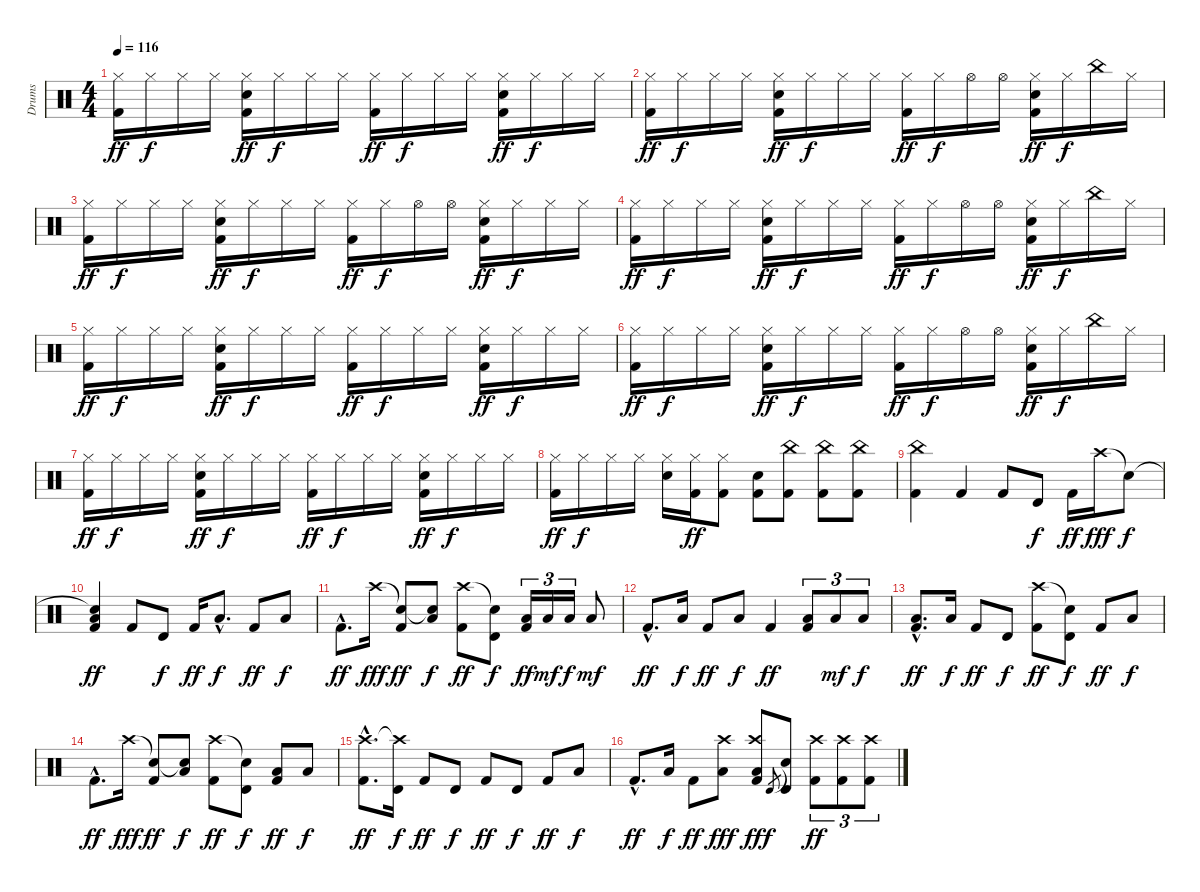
\track ("Drums" "Drums") {instrument percussion}
\staff {score}
\articulation defaults
\ts (4 4)
\tempo 116
\clef neutral
\ks c
("Hi-Hat (closed)" "Kick (hit) 2").16{dy ff} "Hi-Hat (closed)".16{dy f} "Hi-Hat (closed)".16 "Hi-Hat (closed)".16 ("Hi-Hat (closed)" "Snare (hit) 2" "Kick (hit) 2").16{dy ff} "Hi-Hat (closed)".16{dy f} "Hi-Hat (closed)".16 "Hi-Hat (closed)".16 ("Hi-Hat (closed)" "Kick (hit) 2").16{dy ff} "Hi-Hat (closed)".16{dy f} "Hi-Hat (closed)".16 "Hi-Hat (closed)".16 ("Hi-Hat (closed)" "Snare (hit) 2" "Kick (hit) 2").16{dy ff} "Hi-Hat (closed)".16{dy f} "Hi-Hat (closed)".16 "Hi-Hat (closed)".16 |
("Hi-Hat (closed)" "Kick (hit) 2").16{dy ff} "Hi-Hat (closed)".16{dy f} "Hi-Hat (closed)".16 "Hi-Hat (closed)".16 ("Hi-Hat (closed)" "Snare (hit) 2" "Kick (hit) 2").16{dy ff} "Hi-Hat (closed)".16{dy f} "Hi-Hat (closed)".16 "Hi-Hat (closed)".16 ("Hi-Hat (closed)" "Kick (hit) 2").16{dy ff} "Hi-Hat (closed)".16{dy f} "Hi-Hat (open)".16 "Hi-Hat (open)".16 ("Hi-Hat (closed)" "Snare (hit) 2" "Kick (hit) 2").16{dy ff} "Hi-Hat (closed)".16{dy f} "China (hit)".16 "Hi-Hat (closed)".16 |
("Hi-Hat (closed)" "Kick (hit) 2").16{dy ff} "Hi-Hat (closed)".16{dy f} "Hi-Hat (closed)".16 "Hi-Hat (closed)".16 ("Hi-Hat (closed)" "Snare (hit) 2" "Kick (hit) 2").16{dy ff} "Hi-Hat (closed)".16{dy f} "Hi-Hat (closed)".16 "Hi-Hat (closed)".16 ("Hi-Hat (closed)" "Kick (hit) 2").16{dy ff} "Hi-Hat (closed)".16{dy f} "Hi-Hat (open)".16 "Hi-Hat (open)".16 ("Hi-Hat (closed)" "Snare (hit) 2" "Kick (hit) 2").16{dy ff} "Hi-Hat (closed)".16{dy f} "Hi-Hat (closed)".16 "Hi-Hat (closed)".16 |
("Hi-Hat (closed)" "Kick (hit) 2").16{dy ff} "Hi-Hat (closed)".16{dy f} "Hi-Hat (closed)".16 "Hi-Hat (closed)".16 ("Hi-Hat (closed)" "Snare (hit) 2" "Kick (hit) 2").16{dy ff} "Hi-Hat (closed)".16{dy f} "Hi-Hat (closed)".16 "Hi-Hat (closed)".16 ("Hi-Hat (closed)" "Kick (hit) 2").16{dy ff} "Hi-Hat (closed)".16{dy f} "Hi-Hat (open)".16 "Hi-Hat (open)".16 ("Hi-Hat (closed)" "Snare (hit) 2" "Kick (hit) 2").16{dy ff} "Hi-Hat (closed)".16{dy f} "China (hit)".16 "Hi-Hat (closed)".16 |
("Hi-Hat (closed)" "Kick (hit) 2").16{dy ff} "Hi-Hat (closed)".16{dy f} "Hi-Hat (closed)".16 "Hi-Hat (closed)".16 ("Hi-Hat (closed)" "Snare (hit) 2" "Kick (hit) 2").16{dy ff} "Hi-Hat (closed)".16{dy f} "Hi-Hat (closed)".16 "Hi-Hat (closed)".16 ("Hi-Hat (closed)" "Kick (hit) 2").16{dy ff} "Hi-Hat (closed)".16{dy f} "Hi-Hat (closed)".16 "Hi-Hat (closed)".16 ("Hi-Hat (closed)" "Snare (hit) 2" "Kick (hit) 2").16{dy ff} "Hi-Hat (closed)".16{dy f} "Hi-Hat (closed)".16 "Hi-Hat (closed)".16 |
("Hi-Hat (closed)" "Kick (hit) 2").16{dy ff} "Hi-Hat (closed)".16{dy f} "Hi-Hat (closed)".16 "Hi-Hat (closed)".16 ("Hi-Hat (closed)" "Snare (hit) 2" "Kick (hit) 2").16{dy ff} "Hi-Hat (closed)".16{dy f} "Hi-Hat (closed)".16 "Hi-Hat (closed)".16 ("Hi-Hat (closed)" "Kick (hit) 2").16{dy ff} "Hi-Hat (closed)".16{dy f} "Hi-Hat (open)".16 "Hi-Hat (open)".16 ("Hi-Hat (closed)" "Snare (hit) 2" "Kick (hit) 2").16{dy ff} "Hi-Hat (closed)".16{dy f} "China (hit)".16 "Hi-Hat (closed)".16 |
("Hi-Hat (closed)" "Kick (hit) 2").16{dy ff} "Hi-Hat (closed)".16{dy f} "Hi-Hat (closed)".16 "Hi-Hat (closed)".16 ("Hi-Hat (closed)" "Snare (hit) 2" "Kick (hit) 2").16{dy ff} "Hi-Hat (closed)".16{dy f} "Hi-Hat (closed)".16 "Hi-Hat (closed)".16 ("Hi-Hat (closed)" "Kick (hit) 2").16{dy ff} "Hi-Hat (closed)".16{dy f} "Hi-Hat (closed)".16 "Hi-Hat (closed)".16 ("Hi-Hat (closed)" "Snare (hit) 2" "Kick (hit) 2").16{dy ff} "Hi-Hat (closed)".16{dy f} "Hi-Hat (closed)".16 "Hi-Hat (closed)".16 |
("Hi-Hat (closed)" "Kick (hit) 2").16{dy ff} "Hi-Hat (closed)".16{dy f} "Hi-Hat (closed)".16 "Hi-Hat (closed)".16 ("Hi-Hat (closed)" "Snare (hit) 2").16 ("Hi-Hat (closed)" "Kick (hit) 2").16{dy ff} ("Hi-Hat (closed)" "Kick (hit) 2").8 ("Snare (hit) 2" "Kick (hit) 2").8 ("China (hit)" "Kick (hit) 2").8 ("China (hit)" "Kick (hit) 2").8 ("China (hit)" "Kick (hit) 2").8 |
("China (hit)" "Kick (hit) 2").4 "Kick (hit) 2".4 "Kick (hit) 2".8 "Timbale high (hit)".8{dy f} "Kick (hit) 2".16{dy ff} "Crash high (hit)".16{dy fff} "Snare (hit)"{t}.8{dy f} |
("Snare (hit)"{t} "Low Floor Tom (hit)" "Kick (hit) 2").4{dy ff} "Kick (hit) 2".8 "Timbale high (hit)".8{dy f} "Kick (hit) 2".16{dy ff} "Low Floor Tom (hit)"{hac}.8{d dy f} "Kick (hit) 2".8{dy ff} "Low Floor Tom (hit)".8{dy f} |
"Kick (hit) 2"{hac}.8{d dy ff} "Crash high (hit)".16{dy fff} ("Snare (hit)"{t} "Kick (hit) 2").8{dy ff} ("Snare (hit)"{t} "Low Floor Tom (hit)").8{dy f} ("Crash high (hit)" "Kick (hit) 2").8{dy ff} ("Snare (hit)"{t} "Timbale high (hit)").8{dy f} ("Low Floor Tom (hit)" "Kick (hit) 2").16{tu (3 2) dy ff} "Low Floor Tom (hit)".16{tu (3 2) dy mf} "Low Floor Tom (hit)".16{tu (3 2) dy f} "Low Floor Tom (hit)".8{dy mf} |
"Kick (hit) 2"{hac}.8{d dy ff} "Low Floor Tom (hit)".16{dy f} "Kick (hit) 2".8{dy ff} "Low Floor Tom (hit)".8{dy f} "Kick (hit) 2".4{dy ff} ("Low Tom (hit)" "Kick (hit) 2").8{tu (3 2)} "Low Tom (hit)".8{tu (3 2) dy mf} "Low Tom (hit)".8{tu (3 2) dy f} |
("Low Tom (hit)"{hac} "Kick (hit) 2"{hac}).8{d dy ff} "Low Floor Tom (hit)".16{dy f} "Kick (hit) 2".8{dy ff} "Timbale high (hit)".8{dy f} ("Crash high (hit)" "Kick (hit) 2").8{dy ff} ("Snare (hit)"{t} "Timbale high (hit)").8{dy f} "Kick (hit) 2".8{dy ff} "Low Tom (hit)".8{dy f} |
"Kick (hit) 2"{hac}.8{d dy ff} "Crash high (hit)".16{dy fff} ("Snare (hit)"{t} "Kick (hit) 2").8{dy ff} ("Snare (hit)"{t} "Low Floor Tom (hit)").8{dy f} ("Crash high (hit)" "Kick (hit) 2").8{dy ff} ("Snare (hit)"{t} "Timbale high (hit)").8{dy f} ("Low Tom (hit)" "Kick (hit) 2").8{dy ff} "Low Tom (hit)".8{dy f} |
("Crash high (hit)"{hac} "Kick (hit) 2"{hac}).8{d dy ff} ("Crash high (hit)"{t} "Timbale high (hit)").16{dy f} "Kick (hit) 2".8{dy ff} "Timbale high (hit)".8{dy f} "Kick (hit) 2".8{dy ff} "Timbale high (hit)".8{dy f} "Kick (hit) 2".8{dy ff} "Low Floor Tom (hit)".8{dy f} |
"Kick (hit) 2"{hac}.8{d dy ff} "Low Floor Tom (hit)".16{dy f} "Kick (hit) 2".8{dy ff} ("Crash high (hit)" "Low Floor Tom (hit)").8{dy fff} ("Crash high (hit)" "Low Floor Tom (hit)" "Kick (hit) 2").8{dy ff} "Timbale high (hit)".8{gr dy f} ("Snare (hit)"{t} "Timbale high (hit)").8 ("Crash high (hit)" "Kick (hit) 2").8{tu (3 2) dy ff} ("Crash high (hit)" "Kick (hit) 2").8{tu (3 2)} ("Crash high (hit)" "Kick (hit) 2").8{tu (3 2)}
